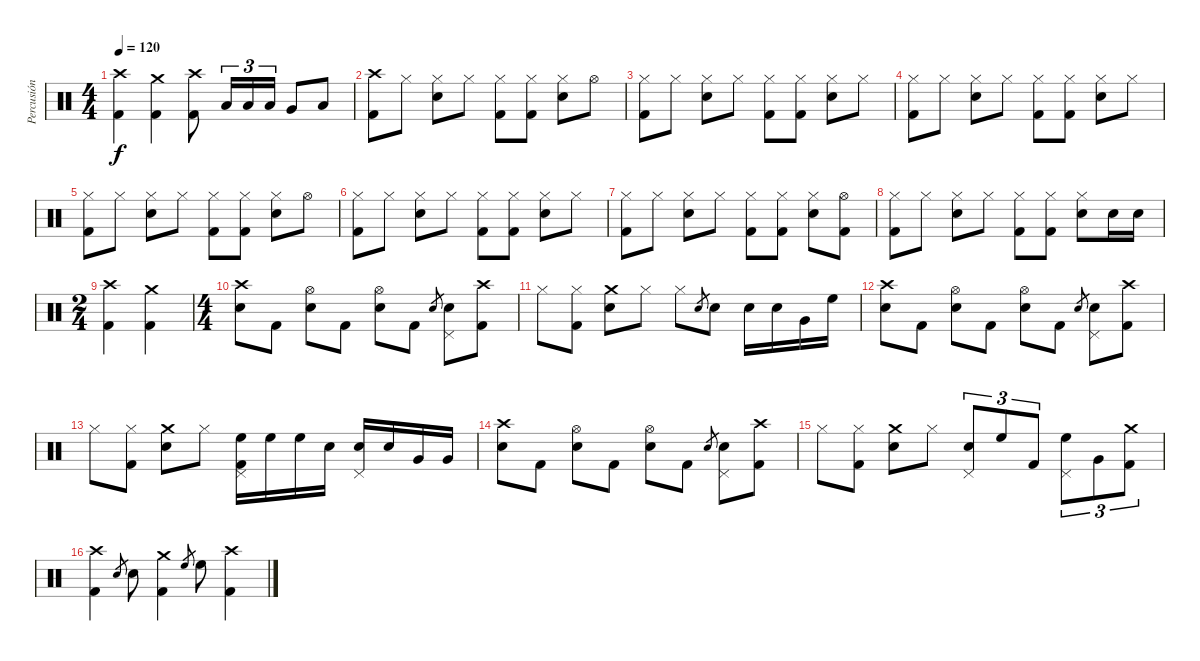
\track ("Percusión" "Percusión") {instrument percussion}
\staff {score}
\articulation defaults
\ts (4 4)
\tempo 120
\clef neutral
\ks c
("Crash high (hit)" "Kick (hit) 2").4{dy f} ("Crash medium (hit)" "Kick (hit) 2").4 ("Crash high (hit)" "Kick (hit) 2").8 "Low Tom (hit)".16{tu (3 2)} "Low Tom (hit)".16{tu (3 2)} "Low Tom (hit)".16{tu (3 2)} "Very Low Tom (hit)".8 "Low Tom (hit)".8 |
("Crash high (hit)" "Kick (hit) 2").8 "Hi-Hat (closed)".8 ("Hi-Hat (closed)" "Electric Snare (hit)").8 "Hi-Hat (closed)".8 ("Hi-Hat (closed)" "Kick (hit) 2").8 ("Hi-Hat (closed)" "Kick (hit) 2").8 ("Hi-Hat (closed)" "Electric Snare (hit)").8 "Hi-Hat (open)".8 |
("Hi-Hat (closed)" "Kick (hit) 2").8 "Hi-Hat (closed)".8 ("Hi-Hat (closed)" "Electric Snare (hit)").8 "Hi-Hat (closed)".8 ("Hi-Hat (closed)" "Kick (hit) 2").8 ("Hi-Hat (closed)" "Kick (hit) 2").8 ("Hi-Hat (closed)" "Electric Snare (hit)").8 "Hi-Hat (closed)".8 |
("Hi-Hat (closed)" "Kick (hit) 2").8 "Hi-Hat (closed)".8 ("Hi-Hat (closed)" "Electric Snare (hit)").8 "Hi-Hat (closed)".8 ("Hi-Hat (closed)" "Kick (hit) 2").8 ("Hi-Hat (closed)" "Kick (hit) 2").8 ("Hi-Hat (closed)" "Electric Snare (hit)").8 "Hi-Hat (closed)".8 |
("Hi-Hat (closed)" "Kick (hit) 2").8 "Hi-Hat (closed)".8 ("Hi-Hat (closed)" "Electric Snare (hit)").8 "Hi-Hat (closed)".8 ("Hi-Hat (closed)" "Kick (hit) 2").8 ("Hi-Hat (closed)" "Kick (hit) 2").8 ("Hi-Hat (closed)" "Electric Snare (hit)").8 "Hi-Hat (open)".8 |
("Hi-Hat (closed)" "Kick (hit) 2").8 "Hi-Hat (closed)".8 ("Hi-Hat (closed)" "Electric Snare (hit)").8 "Hi-Hat (closed)".8 ("Hi-Hat (closed)" "Kick (hit) 2").8 ("Hi-Hat (closed)" "Kick (hit) 2").8 ("Hi-Hat (closed)" "Electric Snare (hit)").8 "Hi-Hat (closed)".8 |
("Hi-Hat (closed)" "Kick (hit) 2").8 "Hi-Hat (closed)".8 ("Hi-Hat (closed)" "Electric Snare (hit)").8 "Hi-Hat (closed)".8 ("Hi-Hat (closed)" "Kick (hit) 2").8 ("Hi-Hat (closed)" "Kick (hit) 2").8 ("Hi-Hat (closed)" "Electric Snare (hit)").8 ("Hi-Hat (open)" "Kick (hit) 2").8 |
("Hi-Hat (closed)" "Kick (hit) 2").8 "Hi-Hat (closed)".8 ("Hi-Hat (closed)" "Electric Snare (hit)").8 "Hi-Hat (closed)".8 ("Hi-Hat (closed)" "Kick (hit) 2").8 ("Hi-Hat (closed)" "Kick (hit) 2").8 ("Hi-Hat (closed)" "Electric Snare (hit)").8 "Electric Snare (hit)".16 "Electric Snare (hit)".16 |
\ts (2 4)
("Crash high (hit)" "Kick (hit) 2").4 ("Crash medium (hit)" "Kick (hit) 2").4 |
\ts (4 4)
("Crash high (hit)" "Electric Snare (hit)").8 "Kick (hit) 2".8 ("Hi-Hat (open)" "Electric Snare (hit)").8 "Kick (hit) 2".8 ("Hi-Hat (open)" "Electric Snare (hit)").8 "Kick (hit) 2".8 "Snare (hit) 2".8{gr} ("Pedal Hi-Hat (hit)" "Snare (hit) 2").8 ("Crash high (hit)" "Kick (hit) 2").8 |
"Hi-Hat (closed)".8 ("Hi-Hat (closed)" "Kick (hit) 2").8 ("Crash medium (hit)" "Snare (hit) 2").8 "Hi-Hat (closed)".8 "Hi-Hat (closed)".8 "Snare (hit) 2".8{gr} "Snare (hit) 2".8 "Electric Snare (hit)".16 "Electric Snare (hit)".16 "Very Low Tom (hit)".16 "High Floor Tom (hit)".16 |
("Crash high (hit)" "Electric Snare (hit)").8 "Kick (hit) 2".8 ("Hi-Hat (open)" "Electric Snare (hit)").8 "Kick (hit) 2".8 ("Hi-Hat (open)" "Electric Snare (hit)").8 "Kick (hit) 2".8 "Snare (hit) 2".8{gr} ("Pedal Hi-Hat (hit)" "Snare (hit) 2").8 ("Crash high (hit)" "Kick (hit) 2").8 |
"Hi-Hat (closed)".8 ("Hi-Hat (closed)" "Kick (hit) 2").8 ("Crash medium (hit)" "Snare (hit) 2").8 "Hi-Hat (closed)".8 ("Pedal Hi-Hat (hit)" "High Floor Tom (hit)" "Kick (hit) 2").16 "High Floor Tom (hit)".16 "High Floor Tom (hit)".16 "Snare (hit) 2".16 ("Pedal Hi-Hat (hit)" "Snare (hit) 2").16 "Snare (hit) 2".16 "Very Low Tom (hit)".16 "Very Low Tom (hit)".16 |
("Crash high (hit)" "Electric Snare (hit)").8 "Kick (hit) 2".8 ("Hi-Hat (open)" "Electric Snare (hit)").8 "Kick (hit) 2".8 ("Hi-Hat (open)" "Electric Snare (hit)").8 "Kick (hit) 2".8 "Snare (hit) 2".8{gr} ("Pedal Hi-Hat (hit)" "Snare (hit) 2").8 ("Crash high (hit)" "Kick (hit) 2").8 |
"Hi-Hat (closed)".8 ("Hi-Hat (closed)" "Kick (hit) 2").8 ("Crash medium (hit)" "Snare (hit) 2").8 "Hi-Hat (closed)".8 ("Pedal Hi-Hat (hit)" "Snare (hit) 2").8{tu (3 2)} "High Floor Tom (hit)".8{tu (3 2)} "Kick (hit) 2".8{tu (3 2)} ("Pedal Hi-Hat (hit)" "High Floor Tom (hit)").8{tu (3 2)} "Very Low Tom (hit)".8{tu (3 2)} ("Crash medium (hit)" "Kick (hit) 2").8{tu (3 2)} |
("Crash high (hit)" "Kick (hit) 2").4 "Snare (hit) 2".8{gr} "Snare (hit) 2".8 ("Crash medium (hit)" "Kick (hit) 2").4 "High Floor Tom (hit)".8{gr} "High Floor Tom (hit)".8 ("Crash high (hit)" "Kick (hit) 2").4
